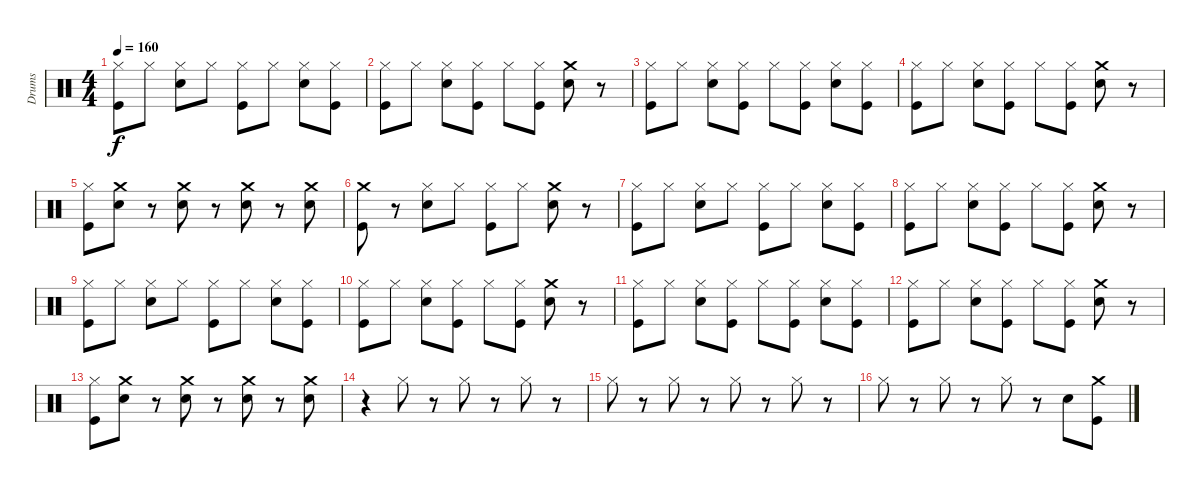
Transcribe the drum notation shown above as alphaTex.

\track ("Drums" "Drums") {instrument percussion}
\staff {score}
\articulation defaults
\ts (4 4)
\tempo 160
\clef neutral
\ks c
("Hi-Hat (closed)" "Kick (hit)").8{dy f} "Hi-Hat (closed)".8 ("Snare (hit) 2" "Hi-Hat (closed)").8 "Hi-Hat (closed)".8 ("Hi-Hat (closed)" "Kick (hit)").8 "Hi-Hat (closed)".8 ("Snare (hit) 2" "Hi-Hat (closed)").8 ("Kick (hit)" "Hi-Hat (closed)").8 |
("Hi-Hat (closed)" "Kick (hit)").8 "Hi-Hat (closed)".8 ("Snare (hit) 2" "Hi-Hat (closed)").8 ("Hi-Hat (closed)" "Kick (hit)").8 "Hi-Hat (closed)".8 ("Kick (hit)" "Hi-Hat (closed)").8 ("Crash medium (hit)" "Snare (hit) 2").8 r.8 |
("Hi-Hat (closed)" "Kick (hit)").8 "Hi-Hat (closed)".8 ("Snare (hit) 2" "Hi-Hat (closed)").8 ("Kick (hit)" "Hi-Hat (closed)").8 "Hi-Hat (closed)".8 ("Kick (hit)" "Hi-Hat (closed)").8 ("Hi-Hat (closed)" "Snare (hit) 2").8 ("Hi-Hat (closed)" "Kick (hit)").8 |
("Hi-Hat (closed)" "Kick (hit)").8 "Hi-Hat (closed)".8 ("Snare (hit) 2" "Hi-Hat (closed)").8 ("Kick (hit)" "Hi-Hat (closed)").8 "Hi-Hat (closed)".8 ("Kick (hit)" "Hi-Hat (closed)").8 ("Crash medium (hit)" "Snare (hit) 2").8 r.8 |
("Hi-Hat (closed)" "Kick (hit)").8 ("Crash medium (hit)" "Snare (hit) 2").8 r.8 ("Snare (hit) 2" "Crash medium (hit)").8 r.8 ("Snare (hit) 2" "Crash medium (hit)").8 r.8 ("Snare (hit) 2" "Crash medium (hit)").8 |
("Crash medium (hit)" "Kick (hit)").8 r.8 ("Hi-Hat (closed)" "Snare (hit) 2").8 "Hi-Hat (closed)".8 ("Kick (hit)" "Hi-Hat (closed)").8 "Hi-Hat (closed)".8 ("Crash medium (hit)" "Snare (hit) 2").8 r.8 |
("Hi-Hat (closed)" "Kick (hit)").8 "Hi-Hat (closed)".8 ("Snare (hit) 2" "Hi-Hat (closed)").8 "Hi-Hat (closed)".8 ("Hi-Hat (closed)" "Kick (hit)").8 "Hi-Hat (closed)".8 ("Snare (hit) 2" "Hi-Hat (closed)").8 ("Kick (hit)" "Hi-Hat (closed)").8 |
("Hi-Hat (closed)" "Kick (hit)").8 "Hi-Hat (closed)".8 ("Snare (hit) 2" "Hi-Hat (closed)").8 ("Kick (hit)" "Hi-Hat (closed)").8 "Hi-Hat (closed)".8 ("Kick (hit)" "Hi-Hat (closed)").8 ("Crash medium (hit)" "Snare (hit) 2").8 r.8 |
("Hi-Hat (closed)" "Kick (hit)").8 "Hi-Hat (closed)".8 ("Snare (hit) 2" "Hi-Hat (closed)").8 "Hi-Hat (closed)".8 ("Kick (hit)" "Hi-Hat (closed)").8 "Hi-Hat (closed)".8 ("Snare (hit) 2" "Hi-Hat (closed)").8 ("Kick (hit)" "Hi-Hat (closed)").8 |
("Hi-Hat (closed)" "Kick (hit)").8 "Hi-Hat (closed)".8 ("Snare (hit) 2" "Hi-Hat (closed)").8 ("Kick (hit)" "Hi-Hat (closed)").8 "Hi-Hat (closed)".8 ("Hi-Hat (closed)" "Kick (hit)").8 ("Crash medium (hit)" "Snare (hit) 2").8 r.8 |
("Hi-Hat (closed)" "Kick (hit)").8 "Hi-Hat (closed)".8 ("Snare (hit) 2" "Hi-Hat (closed)").8 ("Kick (hit)" "Hi-Hat (closed)").8 "Hi-Hat (closed)".8 ("Kick (hit)" "Hi-Hat (closed)").8 ("Hi-Hat (closed)" "Snare (hit) 2").8 ("Hi-Hat (closed)" "Kick (hit)").8 |
("Hi-Hat (closed)" "Kick (hit)").8 "Hi-Hat (closed)".8 ("Snare (hit) 2" "Hi-Hat (closed)").8 ("Kick (hit)" "Hi-Hat (closed)").8 "Hi-Hat (closed)".8 ("Kick (hit)" "Hi-Hat (closed)").8 ("Crash medium (hit)" "Snare (hit) 2").8 r.8 |
("Kick (hit)" "Hi-Hat (closed)").8 ("Crash medium (hit)" "Snare (hit) 2").8 r.8 ("Snare (hit) 2" "Crash medium (hit)").8 r.8 ("Snare (hit) 2" "Crash medium (hit)").8 r.8 ("Snare (hit) 2" "Crash medium (hit)").8 |
r.4 "Hi-Hat (closed)".8 r.8 "Hi-Hat (closed)".8 r.8 "Hi-Hat (closed)".8 r.8 |
"Hi-Hat (closed)".8 r.8 "Hi-Hat (closed)".8 r.8 "Hi-Hat (closed)".8 r.8 "Hi-Hat (closed)".8 r.8 |
"Hi-Hat (closed)".8 r.8 "Hi-Hat (closed)".8 r.8 "Hi-Hat (closed)".8 r.8 "Snare (hit) 2".8 ("Crash medium (hit)" "Kick (hit)").8
